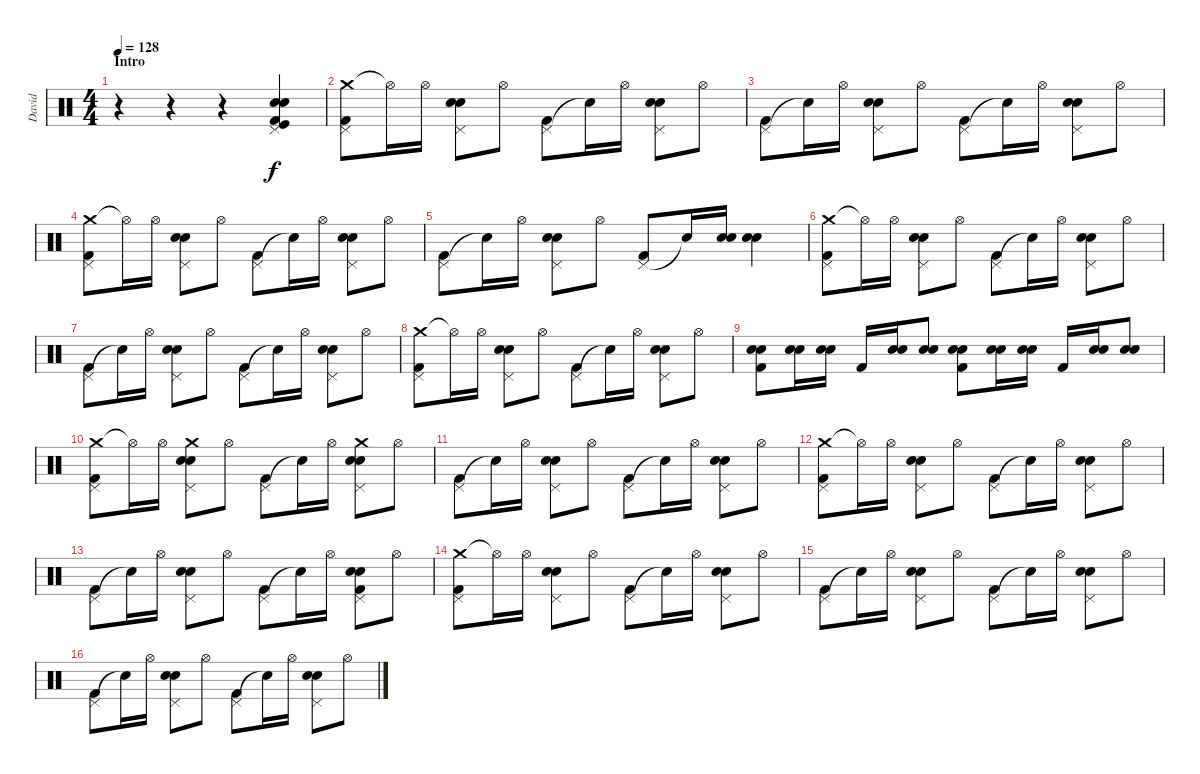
\track ("David" "David") {instrument percussion}
\staff {score}
\articulation defaults
\ts (4 4)
\section ("" "Intro")
\tempo 128
\clef neutral
\ks c
r.4{dy f} r.4 r.4 ("Electric Snare (hit)" "Electric Snare (hit)" "Pedal Hi-Hat (hit)" "Kick (hit)" "Kick (hit) 2").4 |
("Crash medium (hit)" "Pedal Hi-Hat (hit)" "Kick (hit) 2").8 "Hi-Hat (open)"{t}.16 "Hi-Hat (open)".16 ("Electric Snare (hit)" "Snare (hit) 2" "Pedal Hi-Hat (hit)").8 "Hi-Hat (open)".8 ("Pedal Hi-Hat (hit)" "Kick (hit) 2").8 "Snare (hit)"{t}.16 "Hi-Hat (open)".16 ("Snare (hit) 2" "Electric Snare (hit)" "Pedal Hi-Hat (hit)").8 "Hi-Hat (open)".8 |
("Pedal Hi-Hat (hit)" "Kick (hit) 2").8 "Snare (hit)"{t}.16 "Hi-Hat (open)".16 ("Electric Snare (hit)" "Snare (hit) 2" "Pedal Hi-Hat (hit)").8 "Hi-Hat (open)".8 ("Pedal Hi-Hat (hit)" "Kick (hit) 2").8 "Snare (hit)"{t}.16 "Hi-Hat (open)".16 ("Snare (hit) 2" "Electric Snare (hit)" "Pedal Hi-Hat (hit)").8 "Hi-Hat (open)".8 |
("Crash medium (hit)" "Pedal Hi-Hat (hit)" "Kick (hit) 2").8 "Hi-Hat (open)"{t}.16 "Hi-Hat (open)".16 ("Electric Snare (hit)" "Snare (hit) 2" "Pedal Hi-Hat (hit)").8 "Hi-Hat (open)".8 ("Pedal Hi-Hat (hit)" "Kick (hit) 2").8 "Snare (hit)"{t}.16 "Hi-Hat (open)".16 ("Snare (hit) 2" "Electric Snare (hit)" "Pedal Hi-Hat (hit)").8 "Hi-Hat (open)".8 |
("Pedal Hi-Hat (hit)" "Kick (hit) 2").8 "Snare (hit)"{t}.16 "Hi-Hat (open)".16 ("Electric Snare (hit)" "Snare (hit) 2" "Pedal Hi-Hat (hit)").8 "Hi-Hat (open)".8 ("Pedal Hi-Hat (hit)" "Kick (hit) 2").8 "Snare (hit)"{t}.16 ("Snare (hit) 2" "Electric Snare (hit)").16 ("Snare (hit) 2" "Electric Snare (hit)").4 |
("Crash medium (hit)" "Pedal Hi-Hat (hit)" "Kick (hit) 2").8 "Hi-Hat (open)"{t}.16 "Hi-Hat (open)".16 ("Electric Snare (hit)" "Snare (hit) 2" "Pedal Hi-Hat (hit)").8 "Hi-Hat (open)".8 ("Pedal Hi-Hat (hit)" "Kick (hit) 2").8 "Snare (hit)"{t}.16 "Hi-Hat (open)".16 ("Snare (hit) 2" "Electric Snare (hit)" "Pedal Hi-Hat (hit)").8 "Hi-Hat (open)".8 |
("Pedal Hi-Hat (hit)" "Kick (hit) 2").8 "Snare (hit)"{t}.16 "Hi-Hat (open)".16 ("Electric Snare (hit)" "Snare (hit) 2" "Pedal Hi-Hat (hit)").8 "Hi-Hat (open)".8 ("Pedal Hi-Hat (hit)" "Kick (hit) 2").8 "Snare (hit)"{t}.16 "Hi-Hat (open)".16 ("Snare (hit) 2" "Electric Snare (hit)" "Pedal Hi-Hat (hit)").8 "Hi-Hat (open)".8 |
("Crash medium (hit)" "Pedal Hi-Hat (hit)" "Kick (hit) 2").8 "Hi-Hat (open)"{t}.16 "Hi-Hat (open)".16 ("Electric Snare (hit)" "Snare (hit) 2" "Pedal Hi-Hat (hit)").8 "Hi-Hat (open)".8 ("Pedal Hi-Hat (hit)" "Kick (hit) 2").8 "Snare (hit)"{t}.16 "Hi-Hat (open)".16 ("Snare (hit) 2" "Electric Snare (hit)" "Pedal Hi-Hat (hit)").8 "Hi-Hat (open)".8 |
("Snare (hit) 2" "Electric Snare (hit)" "Kick (hit) 2").8 ("Snare (hit) 2" "Electric Snare (hit)").16 ("Snare (hit) 2" "Electric Snare (hit)").16 "Kick (hit) 2".16 ("Snare (hit) 2" "Electric Snare (hit)").16 ("Snare (hit) 2" "Electric Snare (hit)").8 ("Snare (hit) 2" "Electric Snare (hit)" "Kick (hit) 2").8 ("Snare (hit) 2" "Electric Snare (hit)").16 ("Snare (hit) 2" "Electric Snare (hit)").16 "Kick (hit) 2".16 ("Snare (hit) 2" "Electric Snare (hit)").16 ("Snare (hit) 2" "Electric Snare (hit)").8 |
("Crash medium (hit)" "Pedal Hi-Hat (hit)" "Kick (hit) 2").8 "Hi-Hat (open)"{t}.16 "Hi-Hat (open)".16 ("Snare (hit) 2" "Electric Snare (hit)" "Crash medium (hit)" "Pedal Hi-Hat (hit)").8 "Hi-Hat (open)".8 ("Pedal Hi-Hat (hit)" "Kick (hit) 2").8 "Snare (hit)"{t}.16 "Hi-Hat (open)".16 ("Crash medium (hit)" "Electric Snare (hit)" "Snare (hit) 2" "Pedal Hi-Hat (hit)").8 "Hi-Hat (open)".8 |
("Pedal Hi-Hat (hit)" "Kick (hit) 2").8 "Snare (hit)"{t}.16 "Hi-Hat (open)".16 ("Electric Snare (hit)" "Snare (hit) 2" "Pedal Hi-Hat (hit)").8 "Hi-Hat (open)".8 ("Pedal Hi-Hat (hit)" "Kick (hit) 2").8 "Snare (hit)"{t}.16 "Hi-Hat (open)".16 ("Electric Snare (hit)" "Snare (hit) 2" "Pedal Hi-Hat (hit)").8 "Hi-Hat (open)".8 |
("Crash medium (hit)" "Pedal Hi-Hat (hit)" "Kick (hit) 2").8 "Hi-Hat (open)"{t}.16 "Hi-Hat (open)".16 ("Electric Snare (hit)" "Snare (hit) 2" "Pedal Hi-Hat (hit)").8 "Hi-Hat (open)".8 ("Pedal Hi-Hat (hit)" "Kick (hit) 2").8 "Snare (hit)"{t}.16 "Hi-Hat (open)".16 ("Electric Snare (hit)" "Snare (hit) 2" "Pedal Hi-Hat (hit)").8 "Hi-Hat (open)".8 |
("Pedal Hi-Hat (hit)" "Kick (hit) 2").8 "Snare (hit)"{t}.16 "Hi-Hat (open)".16 ("Electric Snare (hit)" "Snare (hit) 2" "Pedal Hi-Hat (hit)").8 "Hi-Hat (open)".8 ("Pedal Hi-Hat (hit)" "Kick (hit) 2").8 "Snare (hit)"{t}.16 "Hi-Hat (open)".16 ("Snare (hit) 2" "Electric Snare (hit)" "Kick (hit) 2" "Pedal Hi-Hat (hit)").8 "Hi-Hat (open)".8 |
("Crash medium (hit)" "Pedal Hi-Hat (hit)" "Kick (hit) 2").8 "Hi-Hat (open)"{t}.16 "Hi-Hat (open)".16 ("Electric Snare (hit)" "Snare (hit) 2" "Pedal Hi-Hat (hit)").8 "Hi-Hat (open)".8 ("Pedal Hi-Hat (hit)" "Kick (hit) 2").8 "Snare (hit)"{t}.16 "Hi-Hat (open)".16 ("Electric Snare (hit)" "Snare (hit) 2" "Pedal Hi-Hat (hit)").8 "Hi-Hat (open)".8 |
("Pedal Hi-Hat (hit)" "Kick (hit) 2").8 "Snare (hit)"{t}.16 "Hi-Hat (open)".16 ("Electric Snare (hit)" "Snare (hit) 2" "Pedal Hi-Hat (hit)").8 "Hi-Hat (open)".8 ("Pedal Hi-Hat (hit)" "Kick (hit) 2").8 "Snare (hit)"{t}.16 "Hi-Hat (open)".16 ("Electric Snare (hit)" "Pedal Hi-Hat (hit)" "Snare (hit) 2").8 "Hi-Hat (open)".8 |
("Pedal Hi-Hat (hit)" "Kick (hit) 2").8 "Snare (hit)"{t}.16 "Hi-Hat (open)".16 ("Electric Snare (hit)" "Snare (hit) 2" "Pedal Hi-Hat (hit)").8 "Hi-Hat (open)".8 ("Pedal Hi-Hat (hit)" "Kick (hit) 2").8 "Snare (hit)"{t}.16 "Hi-Hat (open)".16 ("Electric Snare (hit)" "Pedal Hi-Hat (hit)" "Snare (hit) 2").8 "Hi-Hat (open)".8
